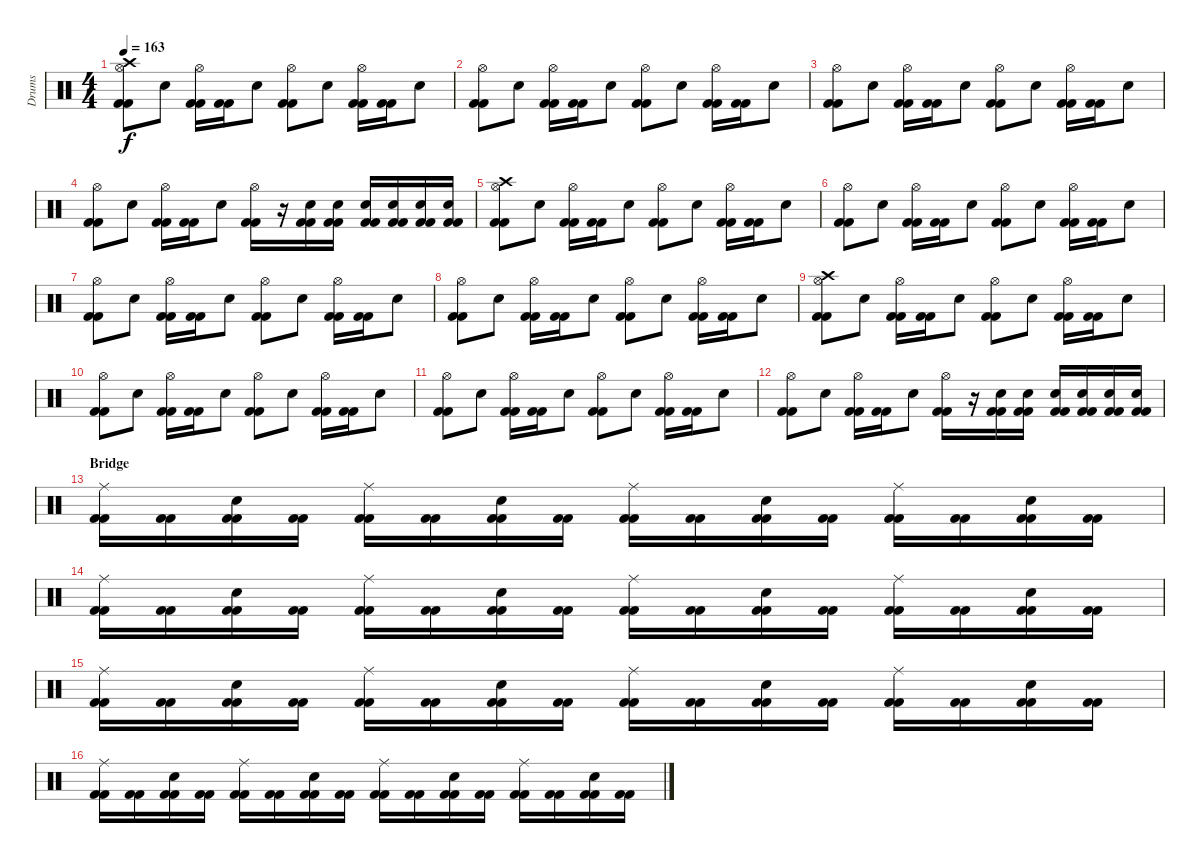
\track ("Drums" "Drums") {instrument percussion}
\staff {score}
\articulation defaults
\ts (4 4)
\tempo 163
\clef neutral
\ks c
("Kick (hit) 2" "Kick (hit) 2" "Hi-Hat (open)" "Crash high (hit)").8{dy f} "Snare (hit) 2".8 ("Kick (hit) 2" "Kick (hit) 2" "Hi-Hat (open)").16 ("Kick (hit) 2" "Kick (hit) 2").16 "Snare (hit) 2".8 ("Kick (hit) 2" "Kick (hit) 2" "Hi-Hat (open)").8 "Snare (hit) 2".8 ("Kick (hit) 2" "Kick (hit) 2" "Hi-Hat (open)").16 ("Kick (hit) 2" "Kick (hit) 2").16 "Snare (hit) 2".8 |
("Kick (hit) 2" "Kick (hit) 2" "Hi-Hat (open)").8 "Snare (hit) 2".8 ("Kick (hit) 2" "Kick (hit) 2" "Hi-Hat (open)").16 ("Kick (hit) 2" "Kick (hit) 2").16 "Snare (hit) 2".8 ("Kick (hit) 2" "Kick (hit) 2" "Hi-Hat (open)").8 "Snare (hit) 2".8 ("Kick (hit) 2" "Kick (hit) 2" "Hi-Hat (open)").16 ("Kick (hit) 2" "Kick (hit) 2").16 "Snare (hit) 2".8 |
("Kick (hit) 2" "Kick (hit) 2" "Hi-Hat (open)").8 "Snare (hit) 2".8 ("Kick (hit) 2" "Kick (hit) 2" "Hi-Hat (open)").16 ("Kick (hit) 2" "Kick (hit) 2").16 "Snare (hit) 2".8 ("Kick (hit) 2" "Kick (hit) 2" "Hi-Hat (open)").8 "Snare (hit) 2".8 ("Kick (hit) 2" "Kick (hit) 2" "Hi-Hat (open)").16 ("Kick (hit) 2" "Kick (hit) 2").16 "Snare (hit) 2".8 |
("Kick (hit) 2" "Kick (hit) 2" "Hi-Hat (open)").8 "Snare (hit) 2".8 ("Kick (hit) 2" "Kick (hit) 2" "Hi-Hat (open)").16 ("Kick (hit) 2" "Kick (hit) 2").16 "Snare (hit) 2".8 ("Kick (hit) 2" "Kick (hit) 2" "Hi-Hat (open)").16 r.16 ("Kick (hit) 2" "Kick (hit) 2" "Electric Snare (hit)").16 ("Kick (hit) 2" "Kick (hit) 2" "Electric Snare (hit)").16 ("Kick (hit) 2" "Kick (hit) 2" "Electric Snare (hit)").16 ("Kick (hit) 2" "Kick (hit) 2" "Electric Snare (hit)").16 ("Kick (hit) 2" "Kick (hit) 2" "Electric Snare (hit)").16 ("Kick (hit) 2" "Kick (hit) 2" "Electric Snare (hit)").16 |
("Kick (hit) 2" "Kick (hit) 2" "Hi-Hat (open)" "Crash high (hit)").8 "Snare (hit) 2".8 ("Kick (hit) 2" "Kick (hit) 2" "Hi-Hat (open)").16 ("Kick (hit) 2" "Kick (hit) 2").16 "Snare (hit) 2".8 ("Kick (hit) 2" "Kick (hit) 2" "Hi-Hat (open)").8 "Snare (hit) 2".8 ("Kick (hit) 2" "Kick (hit) 2" "Hi-Hat (open)").16 ("Kick (hit) 2" "Kick (hit) 2").16 "Snare (hit) 2".8 |
("Kick (hit) 2" "Kick (hit) 2" "Hi-Hat (open)").8 "Snare (hit) 2".8 ("Kick (hit) 2" "Kick (hit) 2" "Hi-Hat (open)").16 ("Kick (hit) 2" "Kick (hit) 2").16 "Snare (hit) 2".8 ("Kick (hit) 2" "Kick (hit) 2" "Hi-Hat (open)").8 "Snare (hit) 2".8 ("Kick (hit) 2" "Kick (hit) 2" "Hi-Hat (open)").16 ("Kick (hit) 2" "Kick (hit) 2").16 "Snare (hit) 2".8 |
("Kick (hit) 2" "Kick (hit) 2" "Hi-Hat (open)").8 "Snare (hit) 2".8 ("Kick (hit) 2" "Kick (hit) 2" "Hi-Hat (open)").16 ("Kick (hit) 2" "Kick (hit) 2").16 "Snare (hit) 2".8 ("Kick (hit) 2" "Kick (hit) 2" "Hi-Hat (open)").8 "Snare (hit) 2".8 ("Kick (hit) 2" "Kick (hit) 2" "Hi-Hat (open)").16 ("Kick (hit) 2" "Kick (hit) 2").16 "Snare (hit) 2".8 |
("Kick (hit) 2" "Kick (hit) 2" "Hi-Hat (open)").8 "Snare (hit) 2".8 ("Kick (hit) 2" "Kick (hit) 2" "Hi-Hat (open)").16 ("Kick (hit) 2" "Kick (hit) 2").16 "Snare (hit) 2".8 ("Kick (hit) 2" "Kick (hit) 2" "Hi-Hat (open)").8 "Snare (hit) 2".8 ("Kick (hit) 2" "Kick (hit) 2" "Hi-Hat (open)").16 ("Kick (hit) 2" "Kick (hit) 2").16 "Snare (hit) 2".8 |
("Kick (hit) 2" "Kick (hit) 2" "Hi-Hat (open)" "Crash high (hit)").8 "Snare (hit) 2".8 ("Kick (hit) 2" "Kick (hit) 2" "Hi-Hat (open)").16 ("Kick (hit) 2" "Kick (hit) 2").16 "Snare (hit) 2".8 ("Kick (hit) 2" "Kick (hit) 2" "Hi-Hat (open)").8 "Snare (hit) 2".8 ("Kick (hit) 2" "Kick (hit) 2" "Hi-Hat (open)").16 ("Kick (hit) 2" "Kick (hit) 2").16 "Snare (hit) 2".8 |
("Kick (hit) 2" "Kick (hit) 2" "Hi-Hat (open)").8 "Snare (hit) 2".8 ("Kick (hit) 2" "Kick (hit) 2" "Hi-Hat (open)").16 ("Kick (hit) 2" "Kick (hit) 2").16 "Snare (hit) 2".8 ("Kick (hit) 2" "Kick (hit) 2" "Hi-Hat (open)").8 "Snare (hit) 2".8 ("Kick (hit) 2" "Kick (hit) 2" "Hi-Hat (open)").16 ("Kick (hit) 2" "Kick (hit) 2").16 "Snare (hit) 2".8 |
("Kick (hit) 2" "Kick (hit) 2" "Hi-Hat (open)").8 "Snare (hit) 2".8 ("Kick (hit) 2" "Kick (hit) 2" "Hi-Hat (open)").16 ("Kick (hit) 2" "Kick (hit) 2").16 "Snare (hit) 2".8 ("Kick (hit) 2" "Kick (hit) 2" "Hi-Hat (open)").8 "Snare (hit) 2".8 ("Kick (hit) 2" "Kick (hit) 2" "Hi-Hat (open)").16 ("Kick (hit) 2" "Kick (hit) 2").16 "Snare (hit) 2".8 |
("Kick (hit) 2" "Kick (hit) 2" "Hi-Hat (open)").8 "Snare (hit) 2".8 ("Kick (hit) 2" "Kick (hit) 2" "Hi-Hat (open)").16 ("Kick (hit) 2" "Kick (hit) 2").16 "Snare (hit) 2".8 ("Kick (hit) 2" "Kick (hit) 2" "Hi-Hat (open)").16 r.16 ("Kick (hit) 2" "Kick (hit) 2" "Electric Snare (hit)").16 ("Kick (hit) 2" "Kick (hit) 2" "Electric Snare (hit)").16 ("Kick (hit) 2" "Kick (hit) 2" "Electric Snare (hit)").16 ("Kick (hit) 2" "Kick (hit) 2" "Electric Snare (hit)").16 ("Kick (hit) 2" "Kick (hit) 2" "Electric Snare (hit)").16 ("Kick (hit) 2" "Kick (hit) 2" "Electric Snare (hit)").16 |
\section ("" "Bridge")
("Kick (hit) 2" "Kick (hit) 2" "Ride (middle)").16 ("Kick (hit) 2" "Kick (hit) 2").16 ("Kick (hit) 2" "Kick (hit) 2" "Snare (hit) 2").16 ("Kick (hit) 2" "Kick (hit) 2").16 ("Kick (hit) 2" "Kick (hit) 2" "Ride (middle)").16 ("Kick (hit) 2" "Kick (hit) 2").16 ("Kick (hit) 2" "Kick (hit) 2" "Snare (hit) 2").16 ("Kick (hit) 2" "Kick (hit) 2").16 ("Kick (hit) 2" "Kick (hit) 2" "Ride (middle)").16 ("Kick (hit) 2" "Kick (hit) 2").16 ("Kick (hit) 2" "Kick (hit) 2" "Snare (hit) 2").16 ("Kick (hit) 2" "Kick (hit) 2").16 ("Kick (hit) 2" "Kick (hit) 2" "Ride (middle)").16 ("Kick (hit) 2" "Kick (hit) 2").16 ("Kick (hit) 2" "Kick (hit) 2" "Snare (hit) 2").16 ("Kick (hit) 2" "Kick (hit) 2").16 |
("Kick (hit) 2" "Kick (hit) 2" "Ride (middle)").16 ("Kick (hit) 2" "Kick (hit) 2").16 ("Kick (hit) 2" "Kick (hit) 2" "Snare (hit) 2").16 ("Kick (hit) 2" "Kick (hit) 2").16 ("Kick (hit) 2" "Kick (hit) 2" "Ride (middle)").16 ("Kick (hit) 2" "Kick (hit) 2").16 ("Kick (hit) 2" "Kick (hit) 2" "Snare (hit) 2").16 ("Kick (hit) 2" "Kick (hit) 2").16 ("Kick (hit) 2" "Kick (hit) 2" "Ride (middle)").16 ("Kick (hit) 2" "Kick (hit) 2").16 ("Kick (hit) 2" "Kick (hit) 2" "Snare (hit) 2").16 ("Kick (hit) 2" "Kick (hit) 2").16 ("Kick (hit) 2" "Kick (hit) 2" "Ride (middle)").16 ("Kick (hit) 2" "Kick (hit) 2").16 ("Kick (hit) 2" "Kick (hit) 2" "Snare (hit) 2").16 ("Kick (hit) 2" "Kick (hit) 2").16 |
("Kick (hit) 2" "Kick (hit) 2" "Ride (middle)").16 ("Kick (hit) 2" "Kick (hit) 2").16 ("Kick (hit) 2" "Kick (hit) 2" "Snare (hit) 2").16 ("Kick (hit) 2" "Kick (hit) 2").16 ("Kick (hit) 2" "Kick (hit) 2" "Ride (middle)").16 ("Kick (hit) 2" "Kick (hit) 2").16 ("Kick (hit) 2" "Kick (hit) 2" "Snare (hit) 2").16 ("Kick (hit) 2" "Kick (hit) 2").16 ("Kick (hit) 2" "Kick (hit) 2" "Ride (middle)").16 ("Kick (hit) 2" "Kick (hit) 2").16 ("Kick (hit) 2" "Kick (hit) 2" "Snare (hit) 2").16 ("Kick (hit) 2" "Kick (hit) 2").16 ("Kick (hit) 2" "Kick (hit) 2" "Ride (middle)").16 ("Kick (hit) 2" "Kick (hit) 2").16 ("Kick (hit) 2" "Kick (hit) 2" "Snare (hit) 2").16 ("Kick (hit) 2" "Kick (hit) 2").16 |
("Kick (hit) 2" "Kick (hit) 2" "Ride (middle)").16 ("Kick (hit) 2" "Kick (hit) 2").16 ("Kick (hit) 2" "Kick (hit) 2" "Snare (hit) 2").16 ("Kick (hit) 2" "Kick (hit) 2").16 ("Kick (hit) 2" "Kick (hit) 2" "Ride (middle)").16 ("Kick (hit) 2" "Kick (hit) 2").16 ("Kick (hit) 2" "Kick (hit) 2" "Snare (hit) 2").16 ("Kick (hit) 2" "Kick (hit) 2").16 ("Kick (hit) 2" "Kick (hit) 2" "Ride (middle)").16 ("Kick (hit) 2" "Kick (hit) 2").16 ("Kick (hit) 2" "Kick (hit) 2" "Snare (hit) 2").16 ("Kick (hit) 2" "Kick (hit) 2").16 ("Kick (hit) 2" "Kick (hit) 2" "Ride (middle)").16 ("Kick (hit) 2" "Kick (hit) 2").16 ("Kick (hit) 2" "Kick (hit) 2" "Snare (hit) 2").16 ("Kick (hit) 2" "Kick (hit) 2").16
